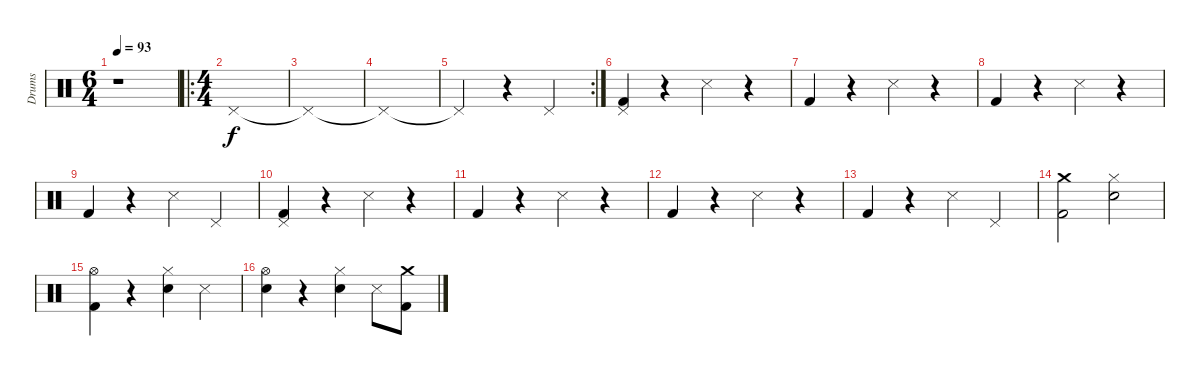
\track ("Drums" "Drums") {instrument percussion}
\staff {score}
\articulation defaults
\ts (6 4)
\tempo 93
\clef neutral
\ks c
r.1{dy f} |
\ro
\ts (4 4)
"Pedal Hi-Hat (hit)".1 |
"Pedal Hi-Hat (hit)"{t}.1 |
"Pedal Hi-Hat (hit)"{t}.1 |
\rc 2 "Pedal Hi-Hat (hit)"{t}.2
r.4 "Pedal Hi-Hat (hit)".4 |
("Pedal Hi-Hat (hit)" "Kick (hit) 2").4 r.4 "Snare (side stick) 3".4 r.4 |
"Kick (hit) 2".4 r.4 "Snare (side stick) 3".4 r.4 |
"Kick (hit) 2".4 r.4 "Snare (side stick) 3".4 r.4 |
"Kick (hit) 2".4 r.4 "Snare (side stick) 3".4 "Pedal Hi-Hat (hit)".4 |
("Pedal Hi-Hat (hit)" "Kick (hit) 2").4 r.4 "Snare (side stick) 3".4 r.4 |
"Kick (hit) 2".4 r.4 "Snare (side stick) 3".4 r.4 |
"Kick (hit) 2".4 r.4 "Snare (side stick) 3".4 r.4 |
"Kick (hit) 2".4 r.4 "Snare (side stick) 3".4 "Pedal Hi-Hat (hit)".4 |
("Crash medium (hit)" "Kick (hit) 2").2 ("Hi-Hat (closed)" "Snare (hit) 2").2 |
("Hi-Hat (open)" "Kick (hit) 2").4 r.4 ("Hi-Hat (closed)" "Snare (hit) 2").4 "Snare (side stick) 3".4 |
("Hi-Hat (open)" "Snare (hit) 2").4 r.4 ("Hi-Hat (closed)" "Snare (hit) 2").4 "Snare (side stick) 3".8 ("Crash medium (hit)" "Kick (hit) 2").8
